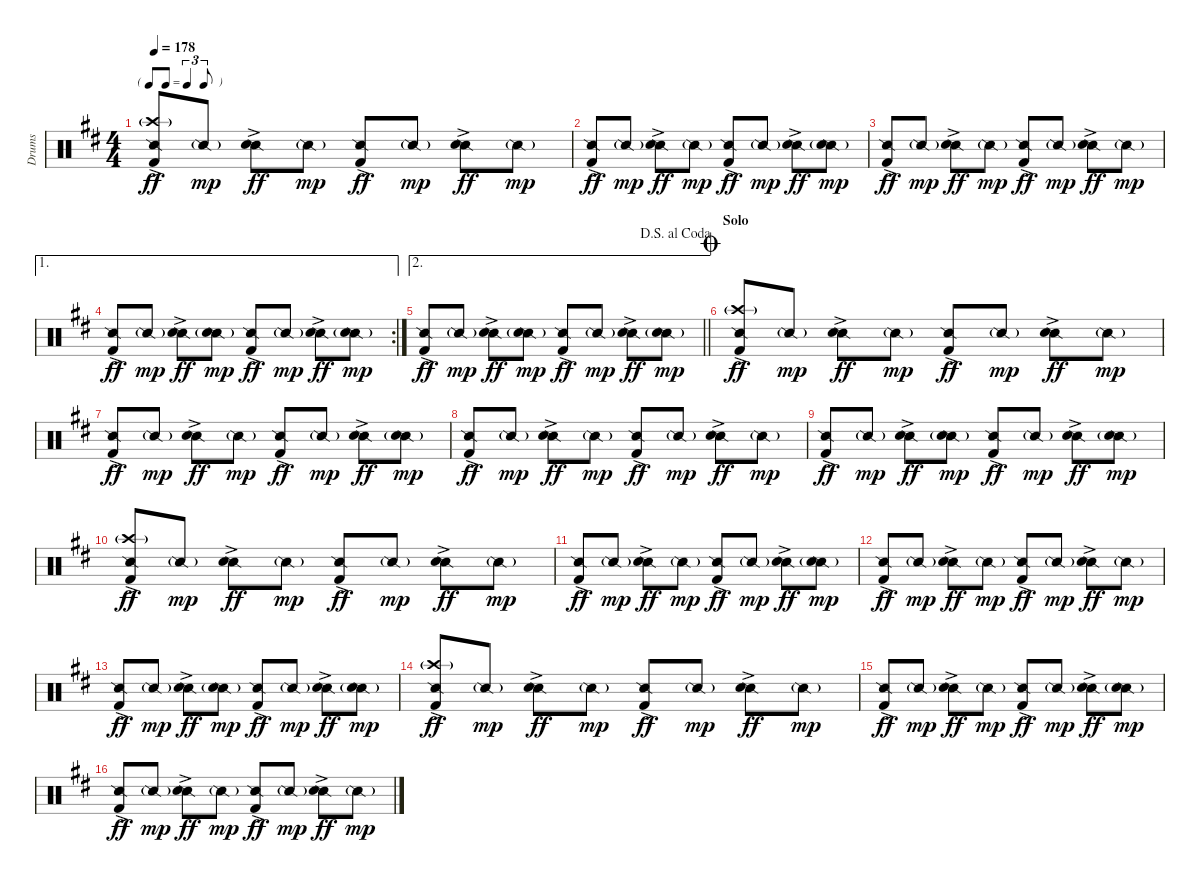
\track ("Drums" "Drums") {instrument percussion}
\staff {score}
\articulation defaults
\ts (4 4)
\tf triplet8th
\tempo 178
\clef neutral
\ks d
("Snare (side stick) 2" "Crash high (hit)"{g} "Kick (hit) 2"{ac}).8{dy ff} "Snare (side stick) 2"{g}.8{dy mp} ("Snare (side stick) 2" "Snare (hit) 2"{ac}).8{dy ff} "Snare (side stick) 2"{g}.8{dy mp} ("Snare (side stick) 2" "Kick (hit) 2"{ac}).8{dy ff} "Snare (side stick) 2"{g}.8{dy mp} ("Snare (side stick) 2" "Snare (hit) 2"{ac}).8{dy ff} "Snare (side stick) 2"{g}.8{dy mp} |
("Snare (side stick) 2" "Kick (hit) 2"{ac}).8{dy ff} "Snare (side stick) 2"{g}.8{dy mp} ("Snare (side stick) 2" "Snare (hit) 2"{ac}).8{dy ff} "Snare (side stick) 2"{g}.8{dy mp} ("Snare (side stick) 2" "Kick (hit) 2"{ac}).8{dy ff} "Snare (side stick) 2"{g}.8{dy mp} ("Snare (side stick) 2" "Snare (hit) 2"{ac}).8{dy ff} ("Snare (side stick) 2"{g} "Snare (hit) 2").8{dy mp} |
("Snare (side stick) 2" "Kick (hit) 2"{ac}).8{dy ff} "Snare (side stick) 2"{g}.8{dy mp} ("Snare (side stick) 2" "Snare (hit) 2"{ac}).8{dy ff} "Snare (side stick) 2"{g}.8{dy mp} ("Snare (side stick) 2" "Kick (hit) 2"{ac}).8{dy ff} "Snare (side stick) 2"{g}.8{dy mp} ("Snare (side stick) 2" "Snare (hit) 2"{ac}).8{dy ff} "Snare (side stick) 2"{g}.8{dy mp} |
\ae 1
\rc 2
("Snare (side stick) 2" "Kick (hit) 2"{ac}).8{dy ff} "Snare (side stick) 2"{g}.8{dy mp} ("Snare (side stick) 2" "Snare (hit) 2"{ac}).8{dy ff} ("Snare (side stick) 2"{g} "Snare (hit) 2").8{dy mp} ("Snare (side stick) 2" "Kick (hit) 2"{ac}).8{dy ff} "Snare (side stick) 2"{g}.8{dy mp} ("Snare (side stick) 2" "Snare (hit) 2"{ac}).8{dy ff} ("Snare (side stick) 2"{g} "Snare (hit) 2").8{dy mp} |
\ae 2
\jump dalsegnoalcoda
\barLineRight lightlight
("Snare (side stick) 2" "Kick (hit) 2"{ac}).8{dy ff} "Snare (side stick) 2"{g}.8{dy mp} ("Snare (side stick) 2" "Snare (hit) 2"{ac}).8{dy ff} ("Snare (side stick) 2"{g} "Snare (hit) 2").8{dy mp} ("Snare (side stick) 2" "Kick (hit) 2"{ac}).8{dy ff} "Snare (side stick) 2"{g}.8{dy mp} ("Snare (side stick) 2" "Snare (hit) 2"{ac}).8{dy ff} ("Snare (side stick) 2"{g} "Snare (hit) 2").8{dy mp} |
\section ("" "Solo")
\jump coda
("Snare (side stick) 2" "Crash high (hit)"{g} "Kick (hit) 2"{ac}).8{dy ff} "Snare (side stick) 2"{g}.8{dy mp} ("Snare (side stick) 2" "Snare (hit) 2"{ac}).8{dy ff} "Snare (side stick) 2"{g}.8{dy mp} ("Snare (side stick) 2" "Kick (hit) 2"{ac}).8{dy ff} "Snare (side stick) 2"{g}.8{dy mp} ("Snare (side stick) 2" "Snare (hit) 2"{ac}).8{dy ff} "Snare (side stick) 2"{g}.8{dy mp} |
("Snare (side stick) 2" "Kick (hit) 2"{ac}).8{dy ff} "Snare (side stick) 2"{g}.8{dy mp} ("Snare (side stick) 2" "Snare (hit) 2"{ac}).8{dy ff} "Snare (side stick) 2"{g}.8{dy mp} ("Snare (side stick) 2" "Kick (hit) 2"{ac}).8{dy ff} "Snare (side stick) 2"{g}.8{dy mp} ("Snare (side stick) 2" "Snare (hit) 2"{ac}).8{dy ff} ("Snare (side stick) 2"{g} "Snare (hit) 2").8{dy mp} |
("Snare (side stick) 2" "Kick (hit) 2"{ac}).8{dy ff} "Snare (side stick) 2"{g}.8{dy mp} ("Snare (side stick) 2" "Snare (hit) 2"{ac}).8{dy ff} "Snare (side stick) 2"{g}.8{dy mp} ("Snare (side stick) 2" "Kick (hit) 2"{ac}).8{dy ff} "Snare (side stick) 2"{g}.8{dy mp} ("Snare (side stick) 2" "Snare (hit) 2"{ac}).8{dy ff} "Snare (side stick) 2"{g}.8{dy mp} |
("Snare (side stick) 2" "Kick (hit) 2"{ac}).8{dy ff} "Snare (side stick) 2"{g}.8{dy mp} ("Snare (side stick) 2" "Snare (hit) 2"{ac}).8{dy ff} ("Snare (side stick) 2"{g} "Snare (hit) 2").8{dy mp} ("Snare (side stick) 2" "Kick (hit) 2"{ac}).8{dy ff} "Snare (side stick) 2"{g}.8{dy mp} ("Snare (side stick) 2" "Snare (hit) 2"{ac}).8{dy ff} ("Snare (side stick) 2"{g} "Snare (hit) 2").8{dy mp} |
("Snare (side stick) 2" "Crash high (hit)"{g} "Kick (hit) 2"{ac}).8{dy ff} "Snare (side stick) 2"{g}.8{dy mp} ("Snare (side stick) 2" "Snare (hit) 2"{ac}).8{dy ff} "Snare (side stick) 2"{g}.8{dy mp} ("Snare (side stick) 2" "Kick (hit) 2"{ac}).8{dy ff} "Snare (side stick) 2"{g}.8{dy mp} ("Snare (side stick) 2" "Snare (hit) 2"{ac}).8{dy ff} "Snare (side stick) 2"{g}.8{dy mp} |
("Snare (side stick) 2" "Kick (hit) 2"{ac}).8{dy ff} "Snare (side stick) 2"{g}.8{dy mp} ("Snare (side stick) 2" "Snare (hit) 2"{ac}).8{dy ff} "Snare (side stick) 2"{g}.8{dy mp} ("Snare (side stick) 2" "Kick (hit) 2"{ac}).8{dy ff} "Snare (side stick) 2"{g}.8{dy mp} ("Snare (side stick) 2" "Snare (hit) 2"{ac}).8{dy ff} ("Snare (side stick) 2"{g} "Snare (hit) 2").8{dy mp} |
("Snare (side stick) 2" "Kick (hit) 2"{ac}).8{dy ff} "Snare (side stick) 2"{g}.8{dy mp} ("Snare (side stick) 2" "Snare (hit) 2"{ac}).8{dy ff} "Snare (side stick) 2"{g}.8{dy mp} ("Snare (side stick) 2" "Kick (hit) 2"{ac}).8{dy ff} "Snare (side stick) 2"{g}.8{dy mp} ("Snare (side stick) 2" "Snare (hit) 2"{ac}).8{dy ff} "Snare (side stick) 2"{g}.8{dy mp} |
("Snare (side stick) 2" "Kick (hit) 2"{ac}).8{dy ff} "Snare (side stick) 2"{g}.8{dy mp} ("Snare (side stick) 2" "Snare (hit) 2"{ac}).8{dy ff} ("Snare (side stick) 2"{g} "Snare (hit) 2").8{dy mp} ("Snare (side stick) 2" "Kick (hit) 2"{ac}).8{dy ff} "Snare (side stick) 2"{g}.8{dy mp} ("Snare (side stick) 2" "Snare (hit) 2"{ac}).8{dy ff} ("Snare (side stick) 2"{g} "Snare (hit) 2").8{dy mp} |
("Snare (side stick) 2" "Crash high (hit)"{g} "Kick (hit) 2"{ac}).8{dy ff} "Snare (side stick) 2"{g}.8{dy mp} ("Snare (side stick) 2" "Snare (hit) 2"{ac}).8{dy ff} "Snare (side stick) 2"{g}.8{dy mp} ("Snare (side stick) 2" "Kick (hit) 2"{ac}).8{dy ff} "Snare (side stick) 2"{g}.8{dy mp} ("Snare (side stick) 2" "Snare (hit) 2"{ac}).8{dy ff} "Snare (side stick) 2"{g}.8{dy mp} |
("Snare (side stick) 2" "Kick (hit) 2"{ac}).8{dy ff} "Snare (side stick) 2"{g}.8{dy mp} ("Snare (side stick) 2" "Snare (hit) 2"{ac}).8{dy ff} "Snare (side stick) 2"{g}.8{dy mp} ("Snare (side stick) 2" "Kick (hit) 2"{ac}).8{dy ff} "Snare (side stick) 2"{g}.8{dy mp} ("Snare (side stick) 2" "Snare (hit) 2"{ac}).8{dy ff} ("Snare (side stick) 2"{g} "Snare (hit) 2").8{dy mp} |
("Snare (side stick) 2" "Kick (hit) 2"{ac}).8{dy ff} "Snare (side stick) 2"{g}.8{dy mp} ("Snare (side stick) 2" "Snare (hit) 2"{ac}).8{dy ff} "Snare (side stick) 2"{g}.8{dy mp} ("Snare (side stick) 2" "Kick (hit) 2"{ac}).8{dy ff} "Snare (side stick) 2"{g}.8{dy mp} ("Snare (side stick) 2" "Snare (hit) 2"{ac}).8{dy ff} "Snare (side stick) 2"{g}.8{dy mp}
